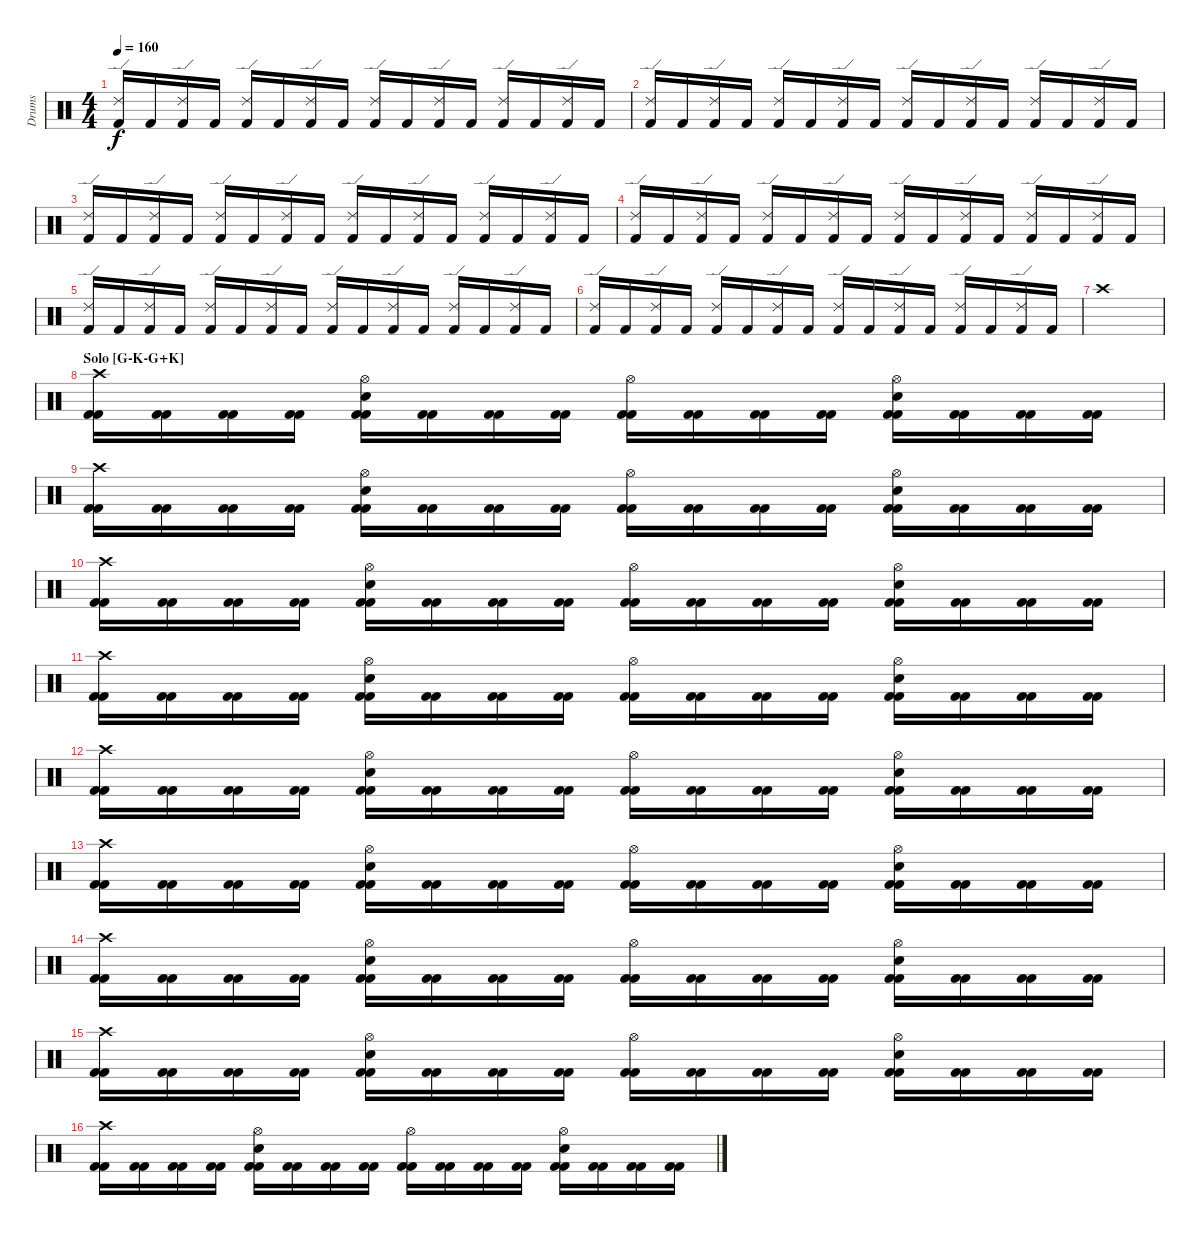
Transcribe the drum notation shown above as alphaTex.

\track ("Drums" "Drums") {instrument percussion}
\staff {score}
\articulation defaults
\ts (4 4)
\tempo 160
\clef neutral
\ks c
("Kick (hit) 2" "Ride (edge) 2").16{dy f} "Kick (hit) 2".16 ("Kick (hit) 2" "Ride (edge) 2").16 "Kick (hit) 2".16 ("Kick (hit) 2" "Ride (edge) 2").16 "Kick (hit) 2".16 ("Kick (hit) 2" "Ride (edge) 2").16 "Kick (hit) 2".16 ("Kick (hit) 2" "Ride (edge) 2").16 "Kick (hit) 2".16 ("Kick (hit) 2" "Ride (edge) 2").16 "Kick (hit) 2".16 ("Kick (hit) 2" "Ride (edge) 2").16 "Kick (hit) 2".16 ("Kick (hit) 2" "Ride (edge) 2").16 "Kick (hit) 2".16 |
("Kick (hit) 2" "Ride (edge) 2").16 "Kick (hit) 2".16 ("Kick (hit) 2" "Ride (edge) 2").16 "Kick (hit) 2".16 ("Kick (hit) 2" "Ride (edge) 2").16 "Kick (hit) 2".16 ("Kick (hit) 2" "Ride (edge) 2").16 "Kick (hit) 2".16 ("Kick (hit) 2" "Ride (edge) 2").16 "Kick (hit) 2".16 ("Kick (hit) 2" "Ride (edge) 2").16 "Kick (hit) 2".16 ("Kick (hit) 2" "Ride (edge) 2").16 "Kick (hit) 2".16 ("Kick (hit) 2" "Ride (edge) 2").16 "Kick (hit) 2".16 |
("Kick (hit) 2" "Ride (edge) 2").16 "Kick (hit) 2".16 ("Kick (hit) 2" "Ride (edge) 2").16 "Kick (hit) 2".16 ("Kick (hit) 2" "Ride (edge) 2").16 "Kick (hit) 2".16 ("Kick (hit) 2" "Ride (edge) 2").16 "Kick (hit) 2".16 ("Kick (hit) 2" "Ride (edge) 2").16 "Kick (hit) 2".16 ("Kick (hit) 2" "Ride (edge) 2").16 "Kick (hit) 2".16 ("Kick (hit) 2" "Ride (edge) 2").16 "Kick (hit) 2".16 ("Kick (hit) 2" "Ride (edge) 2").16 "Kick (hit) 2".16 |
("Kick (hit) 2" "Ride (edge) 2").16 "Kick (hit) 2".16 ("Kick (hit) 2" "Ride (edge) 2").16 "Kick (hit) 2".16 ("Kick (hit) 2" "Ride (edge) 2").16 "Kick (hit) 2".16 ("Kick (hit) 2" "Ride (edge) 2").16 "Kick (hit) 2".16 ("Kick (hit) 2" "Ride (edge) 2").16 "Kick (hit) 2".16 ("Kick (hit) 2" "Ride (edge) 2").16 "Kick (hit) 2".16 ("Kick (hit) 2" "Ride (edge) 2").16 "Kick (hit) 2".16 ("Kick (hit) 2" "Ride (edge) 2").16 "Kick (hit) 2".16 |
("Kick (hit) 2" "Ride (edge) 2").16 "Kick (hit) 2".16 ("Kick (hit) 2" "Ride (edge) 2").16 "Kick (hit) 2".16 ("Kick (hit) 2" "Ride (edge) 2").16 "Kick (hit) 2".16 ("Kick (hit) 2" "Ride (edge) 2").16 "Kick (hit) 2".16 ("Kick (hit) 2" "Ride (edge) 2").16 "Kick (hit) 2".16 ("Kick (hit) 2" "Ride (edge) 2").16 "Kick (hit) 2".16 ("Kick (hit) 2" "Ride (edge) 2").16 "Kick (hit) 2".16 ("Kick (hit) 2" "Ride (edge) 2").16 "Kick (hit) 2".16 |
("Kick (hit) 2" "Ride (edge) 2").16 "Kick (hit) 2".16 ("Kick (hit) 2" "Ride (edge) 2").16 "Kick (hit) 2".16 ("Kick (hit) 2" "Ride (edge) 2").16 "Kick (hit) 2".16 ("Kick (hit) 2" "Ride (edge) 2").16 "Kick (hit) 2".16 ("Kick (hit) 2" "Ride (edge) 2").16 "Kick (hit) 2".16 ("Kick (hit) 2" "Ride (edge) 2").16 "Kick (hit) 2".16 ("Kick (hit) 2" "Ride (edge) 2").16 "Kick (hit) 2".16 ("Kick (hit) 2" "Ride (edge) 2").16 "Kick (hit) 2".16 |
"Crash high (hit)".1 |
\section ("" "Solo [G-K-G+K]")
("Kick (hit) 2" "Kick (hit) 2" "Crash high (hit)").16 ("Kick (hit) 2" "Kick (hit) 2").16 ("Kick (hit) 2" "Kick (hit) 2").16 ("Kick (hit) 2" "Kick (hit) 2").16 ("Kick (hit) 2" "Kick (hit) 2" "Electric Snare (hit)" "Hi-Hat (open)").16 ("Kick (hit) 2" "Kick (hit) 2").16 ("Kick (hit) 2" "Kick (hit) 2").16 ("Kick (hit) 2" "Kick (hit) 2").16 ("Kick (hit) 2" "Kick (hit) 2" "Hi-Hat (open)").16 ("Kick (hit) 2" "Kick (hit) 2").16 ("Kick (hit) 2" "Kick (hit) 2").16 ("Kick (hit) 2" "Kick (hit) 2").16 ("Kick (hit) 2" "Kick (hit) 2" "Electric Snare (hit)" "Hi-Hat (open)").16 ("Kick (hit) 2" "Kick (hit) 2").16 ("Kick (hit) 2" "Kick (hit) 2").16 ("Kick (hit) 2" "Kick (hit) 2").16 |
("Kick (hit) 2" "Kick (hit) 2" "Crash high (hit)").16 ("Kick (hit) 2" "Kick (hit) 2").16 ("Kick (hit) 2" "Kick (hit) 2").16 ("Kick (hit) 2" "Kick (hit) 2").16 ("Kick (hit) 2" "Kick (hit) 2" "Electric Snare (hit)" "Hi-Hat (open)").16 ("Kick (hit) 2" "Kick (hit) 2").16 ("Kick (hit) 2" "Kick (hit) 2").16 ("Kick (hit) 2" "Kick (hit) 2").16 ("Kick (hit) 2" "Kick (hit) 2" "Hi-Hat (open)").16 ("Kick (hit) 2" "Kick (hit) 2").16 ("Kick (hit) 2" "Kick (hit) 2").16 ("Kick (hit) 2" "Kick (hit) 2").16 ("Kick (hit) 2" "Kick (hit) 2" "Electric Snare (hit)" "Hi-Hat (open)").16 ("Kick (hit) 2" "Kick (hit) 2").16 ("Kick (hit) 2" "Kick (hit) 2").16 ("Kick (hit) 2" "Kick (hit) 2").16 |
("Kick (hit) 2" "Kick (hit) 2" "Crash high (hit)").16 ("Kick (hit) 2" "Kick (hit) 2").16 ("Kick (hit) 2" "Kick (hit) 2").16 ("Kick (hit) 2" "Kick (hit) 2").16 ("Kick (hit) 2" "Kick (hit) 2" "Electric Snare (hit)" "Hi-Hat (open)").16 ("Kick (hit) 2" "Kick (hit) 2").16 ("Kick (hit) 2" "Kick (hit) 2").16 ("Kick (hit) 2" "Kick (hit) 2").16 ("Kick (hit) 2" "Kick (hit) 2" "Hi-Hat (open)").16 ("Kick (hit) 2" "Kick (hit) 2").16 ("Kick (hit) 2" "Kick (hit) 2").16 ("Kick (hit) 2" "Kick (hit) 2").16 ("Kick (hit) 2" "Kick (hit) 2" "Electric Snare (hit)" "Hi-Hat (open)").16 ("Kick (hit) 2" "Kick (hit) 2").16 ("Kick (hit) 2" "Kick (hit) 2").16 ("Kick (hit) 2" "Kick (hit) 2").16 |
("Kick (hit) 2" "Kick (hit) 2" "Crash high (hit)").16 ("Kick (hit) 2" "Kick (hit) 2").16 ("Kick (hit) 2" "Kick (hit) 2").16 ("Kick (hit) 2" "Kick (hit) 2").16 ("Kick (hit) 2" "Kick (hit) 2" "Electric Snare (hit)" "Hi-Hat (open)").16 ("Kick (hit) 2" "Kick (hit) 2").16 ("Kick (hit) 2" "Kick (hit) 2").16 ("Kick (hit) 2" "Kick (hit) 2").16 ("Kick (hit) 2" "Kick (hit) 2" "Hi-Hat (open)").16 ("Kick (hit) 2" "Kick (hit) 2").16 ("Kick (hit) 2" "Kick (hit) 2").16 ("Kick (hit) 2" "Kick (hit) 2").16 ("Kick (hit) 2" "Kick (hit) 2" "Electric Snare (hit)" "Hi-Hat (open)").16 ("Kick (hit) 2" "Kick (hit) 2").16 ("Kick (hit) 2" "Kick (hit) 2").16 ("Kick (hit) 2" "Kick (hit) 2").16 |
("Kick (hit) 2" "Kick (hit) 2" "Crash high (hit)").16 ("Kick (hit) 2" "Kick (hit) 2").16 ("Kick (hit) 2" "Kick (hit) 2").16 ("Kick (hit) 2" "Kick (hit) 2").16 ("Kick (hit) 2" "Kick (hit) 2" "Electric Snare (hit)" "Hi-Hat (open)").16 ("Kick (hit) 2" "Kick (hit) 2").16 ("Kick (hit) 2" "Kick (hit) 2").16 ("Kick (hit) 2" "Kick (hit) 2").16 ("Kick (hit) 2" "Kick (hit) 2" "Hi-Hat (open)").16 ("Kick (hit) 2" "Kick (hit) 2").16 ("Kick (hit) 2" "Kick (hit) 2").16 ("Kick (hit) 2" "Kick (hit) 2").16 ("Kick (hit) 2" "Kick (hit) 2" "Electric Snare (hit)" "Hi-Hat (open)").16 ("Kick (hit) 2" "Kick (hit) 2").16 ("Kick (hit) 2" "Kick (hit) 2").16 ("Kick (hit) 2" "Kick (hit) 2").16 |
("Kick (hit) 2" "Kick (hit) 2" "Crash high (hit)").16 ("Kick (hit) 2" "Kick (hit) 2").16 ("Kick (hit) 2" "Kick (hit) 2").16 ("Kick (hit) 2" "Kick (hit) 2").16 ("Kick (hit) 2" "Kick (hit) 2" "Electric Snare (hit)" "Hi-Hat (open)").16 ("Kick (hit) 2" "Kick (hit) 2").16 ("Kick (hit) 2" "Kick (hit) 2").16 ("Kick (hit) 2" "Kick (hit) 2").16 ("Kick (hit) 2" "Kick (hit) 2" "Hi-Hat (open)").16 ("Kick (hit) 2" "Kick (hit) 2").16 ("Kick (hit) 2" "Kick (hit) 2").16 ("Kick (hit) 2" "Kick (hit) 2").16 ("Kick (hit) 2" "Kick (hit) 2" "Electric Snare (hit)" "Hi-Hat (open)").16 ("Kick (hit) 2" "Kick (hit) 2").16 ("Kick (hit) 2" "Kick (hit) 2").16 ("Kick (hit) 2" "Kick (hit) 2").16 |
("Kick (hit) 2" "Kick (hit) 2" "Crash high (hit)").16 ("Kick (hit) 2" "Kick (hit) 2").16 ("Kick (hit) 2" "Kick (hit) 2").16 ("Kick (hit) 2" "Kick (hit) 2").16 ("Kick (hit) 2" "Kick (hit) 2" "Electric Snare (hit)" "Hi-Hat (open)").16 ("Kick (hit) 2" "Kick (hit) 2").16 ("Kick (hit) 2" "Kick (hit) 2").16 ("Kick (hit) 2" "Kick (hit) 2").16 ("Kick (hit) 2" "Kick (hit) 2" "Hi-Hat (open)").16 ("Kick (hit) 2" "Kick (hit) 2").16 ("Kick (hit) 2" "Kick (hit) 2").16 ("Kick (hit) 2" "Kick (hit) 2").16 ("Kick (hit) 2" "Kick (hit) 2" "Electric Snare (hit)" "Hi-Hat (open)").16 ("Kick (hit) 2" "Kick (hit) 2").16 ("Kick (hit) 2" "Kick (hit) 2").16 ("Kick (hit) 2" "Kick (hit) 2").16 |
("Kick (hit) 2" "Kick (hit) 2" "Crash high (hit)").16 ("Kick (hit) 2" "Kick (hit) 2").16 ("Kick (hit) 2" "Kick (hit) 2").16 ("Kick (hit) 2" "Kick (hit) 2").16 ("Kick (hit) 2" "Kick (hit) 2" "Electric Snare (hit)" "Hi-Hat (open)").16 ("Kick (hit) 2" "Kick (hit) 2").16 ("Kick (hit) 2" "Kick (hit) 2").16 ("Kick (hit) 2" "Kick (hit) 2").16 ("Kick (hit) 2" "Kick (hit) 2" "Hi-Hat (open)").16 ("Kick (hit) 2" "Kick (hit) 2").16 ("Kick (hit) 2" "Kick (hit) 2").16 ("Kick (hit) 2" "Kick (hit) 2").16 ("Kick (hit) 2" "Kick (hit) 2" "Electric Snare (hit)" "Hi-Hat (open)").16 ("Kick (hit) 2" "Kick (hit) 2").16 ("Kick (hit) 2" "Kick (hit) 2").16 ("Kick (hit) 2" "Kick (hit) 2").16 |
("Kick (hit) 2" "Kick (hit) 2" "Crash high (hit)").16 ("Kick (hit) 2" "Kick (hit) 2").16 ("Kick (hit) 2" "Kick (hit) 2").16 ("Kick (hit) 2" "Kick (hit) 2").16 ("Kick (hit) 2" "Kick (hit) 2" "Electric Snare (hit)" "Hi-Hat (open)").16 ("Kick (hit) 2" "Kick (hit) 2").16 ("Kick (hit) 2" "Kick (hit) 2").16 ("Kick (hit) 2" "Kick (hit) 2").16 ("Kick (hit) 2" "Kick (hit) 2" "Hi-Hat (open)").16 ("Kick (hit) 2" "Kick (hit) 2").16 ("Kick (hit) 2" "Kick (hit) 2").16 ("Kick (hit) 2" "Kick (hit) 2").16 ("Kick (hit) 2" "Kick (hit) 2" "Electric Snare (hit)" "Hi-Hat (open)").16 ("Kick (hit) 2" "Kick (hit) 2").16 ("Kick (hit) 2" "Kick (hit) 2").16 ("Kick (hit) 2" "Kick (hit) 2").16
